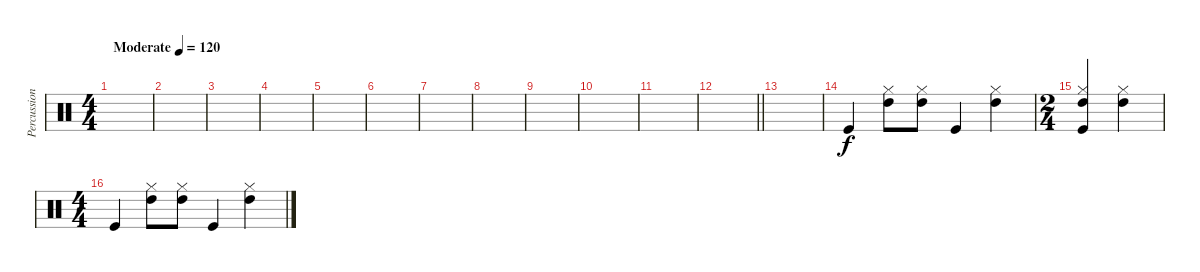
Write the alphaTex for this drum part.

\track ("Percussion" "Percussion") {instrument percussion}
\staff {score}
\articulation defaults
\ts (4 4)
\tempo (120 "Moderate")
\clef neutral
\ks c
|
|
|
|
|
|
|
|
|
|
|
\barLineRight lightlight
|
|
"Kick (hit)".4 ("Hi-Hat (closed)" "High Tom (hit)").8 ("Hi-Hat (closed)" "High Tom (hit)").8 "Kick (hit)".4 ("Hi-Hat (closed)" "High Tom (hit)").4 |
\ts (2 4)
("Hi-Hat (closed)" "High Tom (hit)" "Kick (hit)").4 ("Hi-Hat (closed)" "High Tom (hit)").4 |
\ts (4 4)
"Kick (hit)".4 ("Hi-Hat (closed)" "High Tom (hit)").8 ("Hi-Hat (closed)" "High Tom (hit)").8 "Kick (hit)".4 ("Hi-Hat (closed)" "High Tom (hit)").4
